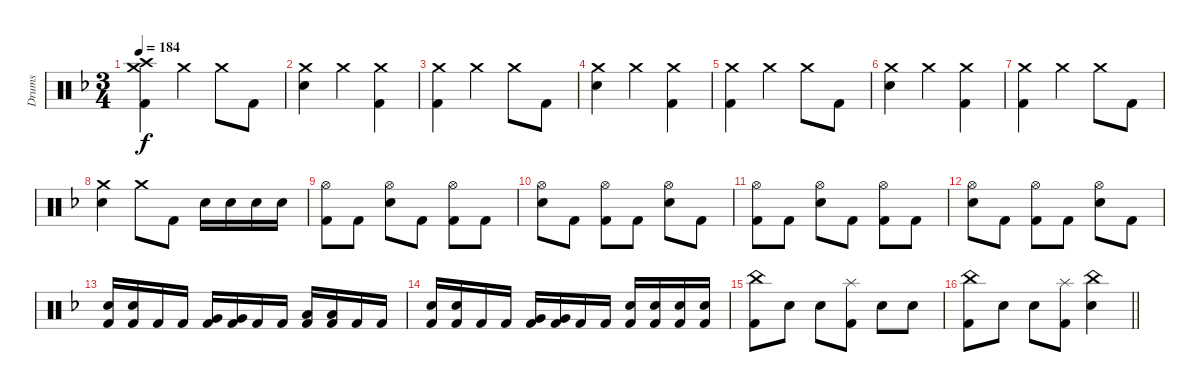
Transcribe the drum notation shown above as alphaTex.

\track ("Drums" "Drums") {instrument percussion}
\staff {score}
\articulation defaults
\ts (3 4)
\tempo 184
\clef neutral
\ks f
("Crash medium (hit)" "Crash high (hit)" "Kick (hit) 2").4{dy f} "Crash medium (hit)".4 "Crash medium (hit)".8 "Kick (hit) 2".8 |
("Crash medium (hit)" "Electric Snare (hit)").4 "Crash medium (hit)".4 ("Crash medium (hit)" "Kick (hit) 2").4 |
("Crash medium (hit)" "Kick (hit) 2").4 "Crash medium (hit)".4 "Crash medium (hit)".8 "Kick (hit) 2".8 |
("Crash medium (hit)" "Electric Snare (hit)").4 "Crash medium (hit)".4 ("Crash medium (hit)" "Kick (hit) 2").4 |
("Crash medium (hit)" "Kick (hit) 2").4 "Crash medium (hit)".4 "Crash medium (hit)".8 "Kick (hit) 2".8 |
("Crash medium (hit)" "Electric Snare (hit)").4 "Crash medium (hit)".4 ("Crash medium (hit)" "Kick (hit) 2").4 |
("Crash medium (hit)" "Kick (hit) 2").4 "Crash medium (hit)".4 "Crash medium (hit)".8 "Kick (hit) 2".8 |
("Crash medium (hit)" "Electric Snare (hit)").4 "Crash medium (hit)".8 "Kick (hit) 2".8 "Electric Snare (hit)".16 "Electric Snare (hit)".16 "Electric Snare (hit)".16 "Electric Snare (hit)".16 |
("Hi-Hat (open)" "Kick (hit) 2").8 "Kick (hit) 2".8 ("Hi-Hat (open)" "Electric Snare (hit)").8 "Kick (hit) 2".8 ("Hi-Hat (open)" "Kick (hit) 2").8 "Kick (hit) 2".8 |
("Hi-Hat (open)" "Electric Snare (hit)").8 "Kick (hit) 2".8 ("Hi-Hat (open)" "Kick (hit) 2").8 "Kick (hit) 2".8 ("Hi-Hat (open)" "Electric Snare (hit)").8 "Kick (hit) 2".8 |
("Hi-Hat (open)" "Kick (hit) 2").8 "Kick (hit) 2".8 ("Hi-Hat (open)" "Electric Snare (hit)").8 "Kick (hit) 2".8 ("Hi-Hat (open)" "Kick (hit) 2").8 "Kick (hit) 2".8 |
("Hi-Hat (open)" "Electric Snare (hit)").8 "Kick (hit) 2".8 ("Hi-Hat (open)" "Kick (hit) 2").8 "Kick (hit) 2".8 ("Hi-Hat (open)" "Electric Snare (hit)").8 "Kick (hit) 2".8 |
("Electric Snare (hit)" "Kick (hit) 2").16 ("Electric Snare (hit)" "Kick (hit) 2").16 "Kick (hit) 2".16 "Kick (hit) 2".16 ("Very Low Tom (hit)" "Kick (hit) 2").16 ("Very Low Tom (hit)" "Kick (hit) 2").16 "Kick (hit) 2".16 "Kick (hit) 2".16 ("Low Floor Tom (hit)" "Kick (hit) 2").16 ("Low Floor Tom (hit)" "Kick (hit) 2").16 "Kick (hit) 2".16 "Kick (hit) 2".16 |
("Electric Snare (hit)" "Kick (hit) 2").16 ("Electric Snare (hit)" "Kick (hit) 2").16 "Kick (hit) 2".16 "Kick (hit) 2".16 ("Very Low Tom (hit)" "Kick (hit) 2").16 ("Very Low Tom (hit)" "Kick (hit) 2").16 "Kick (hit) 2".16 "Kick (hit) 2".16 ("Electric Snare (hit)" "Kick (hit) 2").16 ("Electric Snare (hit)" "Kick (hit) 2").16 ("Electric Snare (hit)" "Kick (hit) 2").16 ("Electric Snare (hit)" "Kick (hit) 2").16 |
("China (hit)" "Kick (hit) 2").8 "Electric Snare (hit)".8 "Electric Snare (hit)".8 ("Splash (hit)" "Kick (hit) 2").8 "Electric Snare (hit)".8 "Electric Snare (hit)".8 |
\barLineRight lightlight
("China (hit)" "Kick (hit) 2").8 "Electric Snare (hit)".8 "Electric Snare (hit)".8 ("Splash (hit)" "Kick (hit) 2").8 ("China (hit)" "Electric Snare (hit)").4
